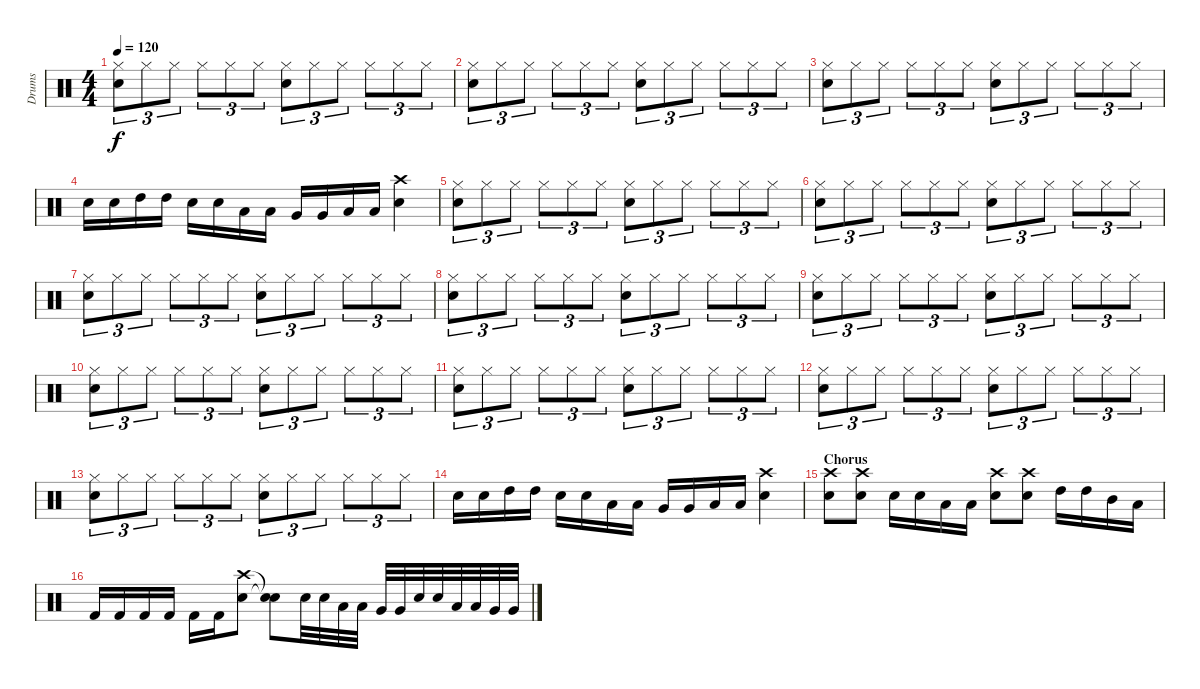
\track ("Drums" "Drums") {instrument percussion}
\staff {score}
\articulation defaults
\ts (4 4)
\tempo 120
\clef neutral
\ks c
("Hi-Hat (closed)" "Electric Snare (hit)").8{tu (3 2) dy f} "Hi-Hat (closed)".8{tu (3 2)} "Hi-Hat (closed)".8{tu (3 2)} "Hi-Hat (closed)".8{tu (3 2)} "Hi-Hat (closed)".8{tu (3 2)} "Hi-Hat (closed)".8{tu (3 2)} ("Hi-Hat (closed)" "Electric Snare (hit)").8{tu (3 2)} "Hi-Hat (closed)".8{tu (3 2)} "Hi-Hat (closed)".8{tu (3 2)} "Hi-Hat (closed)".8{tu (3 2)} "Hi-Hat (closed)".8{tu (3 2)} "Hi-Hat (closed)".8{tu (3 2)} |
("Hi-Hat (closed)" "Electric Snare (hit)").8{tu (3 2)} "Hi-Hat (closed)".8{tu (3 2)} "Hi-Hat (closed)".8{tu (3 2)} "Hi-Hat (closed)".8{tu (3 2)} "Hi-Hat (closed)".8{tu (3 2)} "Hi-Hat (closed)".8{tu (3 2)} ("Hi-Hat (closed)" "Electric Snare (hit)").8{tu (3 2)} "Hi-Hat (closed)".8{tu (3 2)} "Hi-Hat (closed)".8{tu (3 2)} "Hi-Hat (closed)".8{tu (3 2)} "Hi-Hat (closed)".8{tu (3 2)} "Hi-Hat (closed)".8{tu (3 2)} |
("Hi-Hat (closed)" "Electric Snare (hit)").8{tu (3 2)} "Hi-Hat (closed)".8{tu (3 2)} "Hi-Hat (closed)".8{tu (3 2)} "Hi-Hat (closed)".8{tu (3 2)} "Hi-Hat (closed)".8{tu (3 2)} "Hi-Hat (closed)".8{tu (3 2)} ("Hi-Hat (closed)" "Electric Snare (hit)").8{tu (3 2)} "Hi-Hat (closed)".8{tu (3 2)} "Hi-Hat (closed)".8{tu (3 2)} "Hi-Hat (closed)".8{tu (3 2)} "Hi-Hat (closed)".8{tu (3 2)} "Hi-Hat (closed)".8{tu (3 2)} |
"Electric Snare (hit)".16 "Electric Snare (hit)".16 "High Tom (hit)".16 "High Tom (hit)".16 "Electric Snare (hit)".16 "Electric Snare (hit)".16 "Low Tom (hit)".16 "Low Tom (hit)".16 "Very Low Tom (hit)".16 "Very Low Tom (hit)".16 "Low Floor Tom (hit)".16 "Low Floor Tom (hit)".16 ("Crash high (hit)" "Electric Snare (hit)").4 |
("Hi-Hat (closed)" "Electric Snare (hit)").8{tu (3 2)} "Hi-Hat (closed)".8{tu (3 2)} "Hi-Hat (closed)".8{tu (3 2)} "Hi-Hat (closed)".8{tu (3 2)} "Hi-Hat (closed)".8{tu (3 2)} "Hi-Hat (closed)".8{tu (3 2)} ("Hi-Hat (closed)" "Electric Snare (hit)").8{tu (3 2)} "Hi-Hat (closed)".8{tu (3 2)} "Hi-Hat (closed)".8{tu (3 2)} "Hi-Hat (closed)".8{tu (3 2)} "Hi-Hat (closed)".8{tu (3 2)} "Hi-Hat (closed)".8{tu (3 2)} |
("Hi-Hat (closed)" "Electric Snare (hit)").8{tu (3 2)} "Hi-Hat (closed)".8{tu (3 2)} "Hi-Hat (closed)".8{tu (3 2)} "Hi-Hat (closed)".8{tu (3 2)} "Hi-Hat (closed)".8{tu (3 2)} "Hi-Hat (closed)".8{tu (3 2)} ("Hi-Hat (closed)" "Electric Snare (hit)").8{tu (3 2)} "Hi-Hat (closed)".8{tu (3 2)} "Hi-Hat (closed)".8{tu (3 2)} "Hi-Hat (closed)".8{tu (3 2)} "Hi-Hat (closed)".8{tu (3 2)} "Hi-Hat (closed)".8{tu (3 2)} |
("Hi-Hat (closed)" "Electric Snare (hit)").8{tu (3 2)} "Hi-Hat (closed)".8{tu (3 2)} "Hi-Hat (closed)".8{tu (3 2)} "Hi-Hat (closed)".8{tu (3 2)} "Hi-Hat (closed)".8{tu (3 2)} "Hi-Hat (closed)".8{tu (3 2)} ("Hi-Hat (closed)" "Electric Snare (hit)").8{tu (3 2)} "Hi-Hat (closed)".8{tu (3 2)} "Hi-Hat (closed)".8{tu (3 2)} "Hi-Hat (closed)".8{tu (3 2)} "Hi-Hat (closed)".8{tu (3 2)} "Hi-Hat (closed)".8{tu (3 2)} |
("Hi-Hat (closed)" "Electric Snare (hit)").8{tu (3 2)} "Hi-Hat (closed)".8{tu (3 2)} "Hi-Hat (closed)".8{tu (3 2)} "Hi-Hat (closed)".8{tu (3 2)} "Hi-Hat (closed)".8{tu (3 2)} "Hi-Hat (closed)".8{tu (3 2)} ("Hi-Hat (closed)" "Electric Snare (hit)").8{tu (3 2)} "Hi-Hat (closed)".8{tu (3 2)} "Hi-Hat (closed)".8{tu (3 2)} "Hi-Hat (closed)".8{tu (3 2)} "Hi-Hat (closed)".8{tu (3 2)} "Hi-Hat (closed)".8{tu (3 2)} |
("Hi-Hat (closed)" "Electric Snare (hit)").8{tu (3 2)} "Hi-Hat (closed)".8{tu (3 2)} "Hi-Hat (closed)".8{tu (3 2)} "Hi-Hat (closed)".8{tu (3 2)} "Hi-Hat (closed)".8{tu (3 2)} "Hi-Hat (closed)".8{tu (3 2)} ("Hi-Hat (closed)" "Electric Snare (hit)").8{tu (3 2)} "Hi-Hat (closed)".8{tu (3 2)} "Hi-Hat (closed)".8{tu (3 2)} "Hi-Hat (closed)".8{tu (3 2)} "Hi-Hat (closed)".8{tu (3 2)} "Hi-Hat (closed)".8{tu (3 2)} |
("Hi-Hat (closed)" "Electric Snare (hit)").8{tu (3 2)} "Hi-Hat (closed)".8{tu (3 2)} "Hi-Hat (closed)".8{tu (3 2)} "Hi-Hat (closed)".8{tu (3 2)} "Hi-Hat (closed)".8{tu (3 2)} "Hi-Hat (closed)".8{tu (3 2)} ("Hi-Hat (closed)" "Electric Snare (hit)").8{tu (3 2)} "Hi-Hat (closed)".8{tu (3 2)} "Hi-Hat (closed)".8{tu (3 2)} "Hi-Hat (closed)".8{tu (3 2)} "Hi-Hat (closed)".8{tu (3 2)} "Hi-Hat (closed)".8{tu (3 2)} |
("Hi-Hat (closed)" "Electric Snare (hit)").8{tu (3 2)} "Hi-Hat (closed)".8{tu (3 2)} "Hi-Hat (closed)".8{tu (3 2)} "Hi-Hat (closed)".8{tu (3 2)} "Hi-Hat (closed)".8{tu (3 2)} "Hi-Hat (closed)".8{tu (3 2)} ("Hi-Hat (closed)" "Electric Snare (hit)").8{tu (3 2)} "Hi-Hat (closed)".8{tu (3 2)} "Hi-Hat (closed)".8{tu (3 2)} "Hi-Hat (closed)".8{tu (3 2)} "Hi-Hat (closed)".8{tu (3 2)} "Hi-Hat (closed)".8{tu (3 2)} |
("Hi-Hat (closed)" "Electric Snare (hit)").8{tu (3 2)} "Hi-Hat (closed)".8{tu (3 2)} "Hi-Hat (closed)".8{tu (3 2)} "Hi-Hat (closed)".8{tu (3 2)} "Hi-Hat (closed)".8{tu (3 2)} "Hi-Hat (closed)".8{tu (3 2)} ("Hi-Hat (closed)" "Electric Snare (hit)").8{tu (3 2)} "Hi-Hat (closed)".8{tu (3 2)} "Hi-Hat (closed)".8{tu (3 2)} "Hi-Hat (closed)".8{tu (3 2)} "Hi-Hat (closed)".8{tu (3 2)} "Hi-Hat (closed)".8{tu (3 2)} |
("Hi-Hat (closed)" "Electric Snare (hit)").8{tu (3 2)} "Hi-Hat (closed)".8{tu (3 2)} "Hi-Hat (closed)".8{tu (3 2)} "Hi-Hat (closed)".8{tu (3 2)} "Hi-Hat (closed)".8{tu (3 2)} "Hi-Hat (closed)".8{tu (3 2)} ("Hi-Hat (closed)" "Electric Snare (hit)").8{tu (3 2)} "Hi-Hat (closed)".8{tu (3 2)} "Hi-Hat (closed)".8{tu (3 2)} "Hi-Hat (closed)".8{tu (3 2)} "Hi-Hat (closed)".8{tu (3 2)} "Hi-Hat (closed)".8{tu (3 2)} |
"Electric Snare (hit)".16 "Electric Snare (hit)".16 "High Tom (hit)".16 "High Tom (hit)".16 "Electric Snare (hit)".16 "Electric Snare (hit)".16 "Low Tom (hit)".16 "Low Tom (hit)".16 "Very Low Tom (hit)".16 "Very Low Tom (hit)".16 "Low Floor Tom (hit)".16 "Low Floor Tom (hit)".16 ("Crash high (hit)" "Electric Snare (hit)").4 |
\section ("" "Chorus")
("Crash high (hit)" "Electric Snare (hit)").8 ("Crash high (hit)" "Electric Snare (hit)").8 "Electric Snare (hit)".16 "Electric Snare (hit)".16 "Low Tom (hit)".16 "Low Tom (hit)".16 ("Crash high (hit)" "Electric Snare (hit)").8 ("Crash high (hit)" "Electric Snare (hit)").8 "High Tom (hit)".16 "High Tom (hit)".16 "Mid Tom (hit)".16 "Low Tom (hit)".16 |
"Kick (hit) 2".16 "Kick (hit) 2".16 "Kick (hit) 2".16 "Kick (hit) 2".16 "Kick (hit) 2".16 "Kick (hit) 2".16 ("Crash high (hit)" "Electric Snare (hit)").8 ("Snare (hit)"{t} "Snare (hit)"{t}).8 "Electric Snare (hit)".32 "Electric Snare (hit)".32 "Low Tom (hit)".32 "Low Tom (hit)".32 "Very Low Tom (hit)".32 "Very Low Tom (hit)".32 "Electric Snare (hit)".32 "Electric Snare (hit)".32 "Low Tom (hit)".32 "Low Tom (hit)".32 "Very Low Tom (hit)".32 "Very Low Tom (hit)".32
